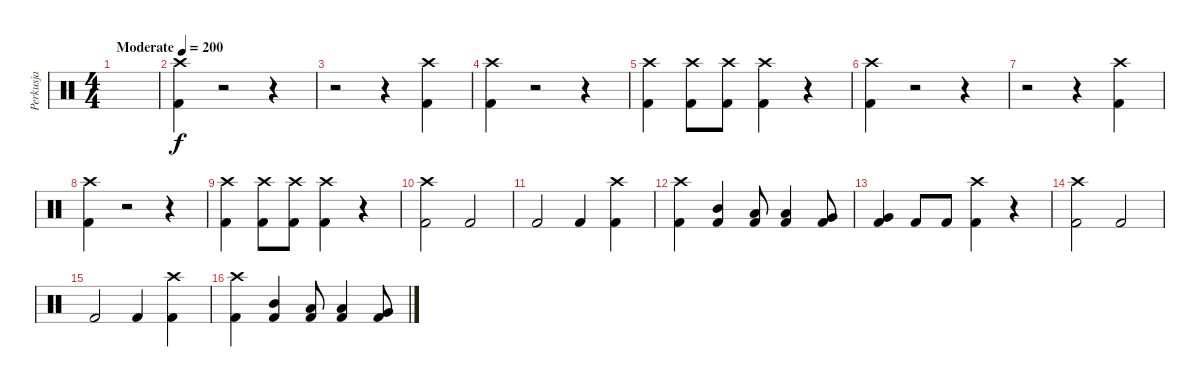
\track ("Perkusja" "Perkusja") {instrument percussion}
\staff {score}
\articulation defaults
\ts (4 4)
\tempo (200 "Moderate")
\clef neutral
\ks c
|
("Crash high (hit)" "Kick (hit) 2").4 r.2 r.4 |
r.2 r.4 ("Crash high (hit)" "Kick (hit) 2").4 |
("Crash high (hit)" "Kick (hit) 2").4 r.2 r.4 |
("Crash high (hit)" "Kick (hit) 2").4 ("Crash high (hit)" "Kick (hit) 2").8 ("Crash high (hit)" "Kick (hit) 2").8 ("Crash high (hit)" "Kick (hit) 2").4 r.4 |
("Crash high (hit)" "Kick (hit) 2").4 r.2 r.4 |
r.2 r.4 ("Crash high (hit)" "Kick (hit) 2").4 |
("Crash high (hit)" "Kick (hit) 2").4 r.2 r.4 |
("Crash high (hit)" "Kick (hit) 2").4 ("Crash high (hit)" "Kick (hit) 2").8 ("Crash high (hit)" "Kick (hit) 2").8 ("Crash high (hit)" "Kick (hit) 2").4 r.4 |
("Crash high (hit)" "Kick (hit) 2").2 "Kick (hit) 2".2 |
"Kick (hit) 2".2 "Kick (hit) 2".4 ("Crash high (hit)" "Kick (hit) 2").4 |
("Crash high (hit)" "Kick (hit) 2").4 ("Mid Tom (hit)" "Kick (hit) 2").4 ("Low Tom (hit)" "Kick (hit) 2").8 ("Low Tom (hit)" "Kick (hit) 2").4 ("Very Low Tom (hit)" "Kick (hit) 2").8 |
("Very Low Tom (hit)" "Kick (hit) 2").4 "Kick (hit) 2".8 "Kick (hit) 2".8 ("Crash high (hit)" "Kick (hit) 2").4 r.4 |
("Crash high (hit)" "Kick (hit) 2").2 "Kick (hit) 2".2 |
"Kick (hit) 2".2 "Kick (hit) 2".4 ("Crash high (hit)" "Kick (hit) 2").4 |
("Crash high (hit)" "Kick (hit) 2").4 ("Mid Tom (hit)" "Kick (hit) 2").4 ("Low Tom (hit)" "Kick (hit) 2").8 ("Low Tom (hit)" "Kick (hit) 2").4 ("Very Low Tom (hit)" "Kick (hit) 2").8
